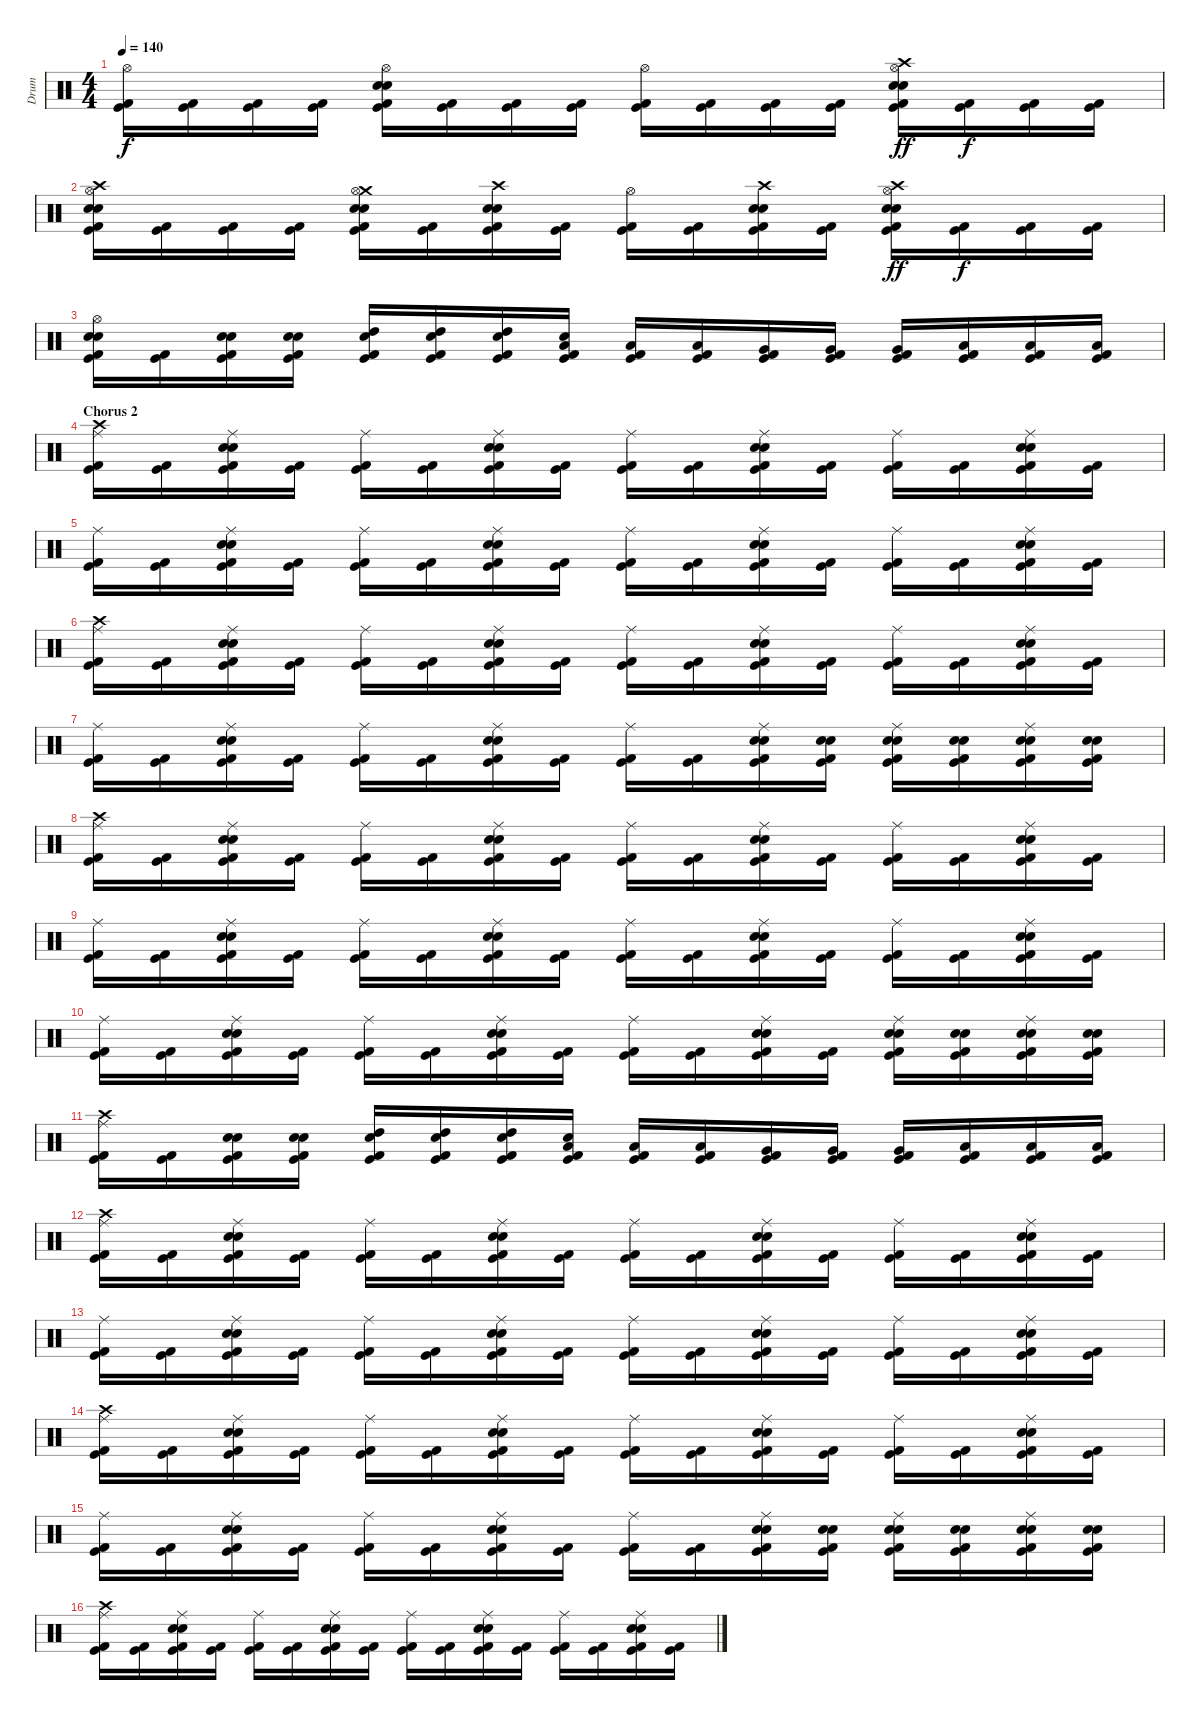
\track ("Drum" "Drum") {instrument percussion}
\staff {score}
\articulation defaults
\ts (4 4)
\tempo 140
\clef neutral
\ks c
("Hi-Hat (open)" "Kick (hit)" "Kick (hit) 2").16{dy f} ("Kick (hit)" "Kick (hit) 2").16 ("Kick (hit)" "Kick (hit) 2").16 ("Kick (hit)" "Kick (hit) 2").16 ("Hi-Hat (open)" "Snare (hit) 2" "Electric Snare (hit)" "Kick (hit)" "Kick (hit) 2").16 ("Kick (hit)" "Kick (hit) 2").16 ("Kick (hit)" "Kick (hit) 2").16 ("Kick (hit)" "Kick (hit) 2").16 ("Hi-Hat (open)" "Kick (hit)" "Kick (hit) 2").16 ("Kick (hit)" "Kick (hit) 2").16 ("Kick (hit)" "Kick (hit) 2").16 ("Kick (hit)" "Kick (hit) 2").16 ("Crash high (hit)" "Hi-Hat (open)" "Snare (hit) 2" "Electric Snare (hit)" "Kick (hit)" "Kick (hit) 2").16{dy ff} ("Kick (hit)" "Kick (hit) 2").16{dy f} ("Kick (hit)" "Kick (hit) 2").16 ("Kick (hit)" "Kick (hit) 2").16 |
("Crash high (hit)" "Hi-Hat (open)" "Snare (hit) 2" "Electric Snare (hit)" "Kick (hit)" "Kick (hit) 2").16 ("Kick (hit)" "Kick (hit) 2").16 ("Kick (hit)" "Kick (hit) 2").16 ("Kick (hit)" "Kick (hit) 2").16 ("Crash medium (hit)" "Hi-Hat (open)" "Snare (hit) 2" "Electric Snare (hit)" "Kick (hit)" "Kick (hit) 2").16 ("Kick (hit)" "Kick (hit) 2").16 ("Crash high (hit)" "Snare (hit) 2" "Electric Snare (hit)" "Kick (hit)" "Kick (hit) 2").16 ("Kick (hit)" "Kick (hit) 2").16 ("Hi-Hat (open)" "Kick (hit)" "Kick (hit) 2").16 ("Kick (hit)" "Kick (hit) 2").16 ("Crash high (hit)" "Snare (hit) 2" "Electric Snare (hit)" "Kick (hit)" "Kick (hit) 2").16 ("Kick (hit)" "Kick (hit) 2").16 ("Crash high (hit)" "Hi-Hat (open)" "Snare (hit) 2" "Electric Snare (hit)" "Kick (hit)" "Kick (hit) 2").16{dy ff} ("Kick (hit)" "Kick (hit) 2").16{dy f} ("Kick (hit)" "Kick (hit) 2").16 ("Kick (hit)" "Kick (hit) 2").16 |
("Hi-Hat (open)" "Snare (hit) 2" "Electric Snare (hit)" "Kick (hit)" "Kick (hit) 2").16 ("Kick (hit)" "Kick (hit) 2").16 ("Snare (hit) 2" "Electric Snare (hit)" "Kick (hit)" "Kick (hit) 2").16 ("Snare (hit) 2" "Electric Snare (hit)" "Kick (hit)" "Kick (hit) 2").16 ("High Tom (hit)" "Electric Snare (hit)" "Kick (hit)" "Kick (hit) 2").16 ("High Tom (hit)" "Electric Snare (hit)" "Kick (hit)" "Kick (hit) 2").16 ("High Tom (hit)" "Electric Snare (hit)" "Kick (hit)" "Kick (hit) 2").16 ("Low Tom (hit)" "Electric Snare (hit)" "Kick (hit)" "Kick (hit) 2").16 ("Low Tom (hit)" "Kick (hit)" "Kick (hit) 2").16 ("Low Tom (hit)" "Kick (hit)" "Kick (hit) 2").16 ("Very Low Tom (hit)" "Kick (hit)" "Kick (hit) 2").16 ("Very Low Tom (hit)" "Kick (hit)" "Kick (hit) 2").16 ("Very Low Tom (hit)" "Kick (hit)" "Kick (hit) 2").16 ("Low Floor Tom (hit)" "Kick (hit)" "Kick (hit) 2").16 ("Low Floor Tom (hit)" "Kick (hit)" "Kick (hit) 2").16 ("Low Floor Tom (hit)" "Kick (hit)" "Kick (hit) 2").16 |
\section ("" "Chorus 2")
("Crash high (hit)" "Ride (middle)" "Kick (hit)" "Kick (hit) 2").16 ("Kick (hit)" "Kick (hit) 2").16 ("Ride (middle)" "Snare (hit) 2" "Electric Snare (hit)" "Kick (hit)" "Kick (hit) 2").16 ("Kick (hit)" "Kick (hit) 2").16 ("Ride (middle)" "Kick (hit)" "Kick (hit) 2").16 ("Kick (hit)" "Kick (hit) 2").16 ("Ride (middle)" "Snare (hit) 2" "Electric Snare (hit)" "Kick (hit)" "Kick (hit) 2").16 ("Kick (hit)" "Kick (hit) 2").16 ("Ride (middle)" "Kick (hit)" "Kick (hit) 2").16 ("Kick (hit)" "Kick (hit) 2").16 ("Ride (middle)" "Snare (hit) 2" "Electric Snare (hit)" "Kick (hit)" "Kick (hit) 2").16 ("Kick (hit)" "Kick (hit) 2").16 ("Ride (middle)" "Kick (hit)" "Kick (hit) 2").16 ("Kick (hit)" "Kick (hit) 2").16 ("Ride (middle)" "Snare (hit) 2" "Electric Snare (hit)" "Kick (hit)" "Kick (hit) 2").16 ("Kick (hit)" "Kick (hit) 2").16 |
("Ride (middle)" "Kick (hit)" "Kick (hit) 2").16 ("Kick (hit)" "Kick (hit) 2").16 ("Ride (middle)" "Snare (hit) 2" "Electric Snare (hit)" "Kick (hit)" "Kick (hit) 2").16 ("Kick (hit)" "Kick (hit) 2").16 ("Ride (middle)" "Kick (hit)" "Kick (hit) 2").16 ("Kick (hit)" "Kick (hit) 2").16 ("Ride (middle)" "Snare (hit) 2" "Electric Snare (hit)" "Kick (hit)" "Kick (hit) 2").16 ("Kick (hit)" "Kick (hit) 2").16 ("Ride (middle)" "Kick (hit)" "Kick (hit) 2").16 ("Kick (hit)" "Kick (hit) 2").16 ("Ride (middle)" "Snare (hit) 2" "Electric Snare (hit)" "Kick (hit)" "Kick (hit) 2").16 ("Kick (hit)" "Kick (hit) 2").16 ("Ride (middle)" "Kick (hit)" "Kick (hit) 2").16 ("Kick (hit)" "Kick (hit) 2").16 ("Ride (middle)" "Snare (hit) 2" "Electric Snare (hit)" "Kick (hit)" "Kick (hit) 2").16 ("Kick (hit)" "Kick (hit) 2").16 |
("Crash high (hit)" "Ride (middle)" "Kick (hit)" "Kick (hit) 2").16 ("Kick (hit)" "Kick (hit) 2").16 ("Ride (middle)" "Snare (hit) 2" "Electric Snare (hit)" "Kick (hit)" "Kick (hit) 2").16 ("Kick (hit)" "Kick (hit) 2").16 ("Ride (middle)" "Kick (hit)" "Kick (hit) 2").16 ("Kick (hit)" "Kick (hit) 2").16 ("Ride (middle)" "Snare (hit) 2" "Electric Snare (hit)" "Kick (hit)" "Kick (hit) 2").16 ("Kick (hit)" "Kick (hit) 2").16 ("Ride (middle)" "Kick (hit)" "Kick (hit) 2").16 ("Kick (hit)" "Kick (hit) 2").16 ("Ride (middle)" "Snare (hit) 2" "Electric Snare (hit)" "Kick (hit)" "Kick (hit) 2").16 ("Kick (hit)" "Kick (hit) 2").16 ("Ride (middle)" "Kick (hit)" "Kick (hit) 2").16 ("Kick (hit)" "Kick (hit) 2").16 ("Ride (middle)" "Snare (hit) 2" "Electric Snare (hit)" "Kick (hit)" "Kick (hit) 2").16 ("Kick (hit)" "Kick (hit) 2").16 |
("Ride (middle)" "Kick (hit)" "Kick (hit) 2").16 ("Kick (hit)" "Kick (hit) 2").16 ("Ride (middle)" "Snare (hit) 2" "Electric Snare (hit)" "Kick (hit)" "Kick (hit) 2").16 ("Kick (hit)" "Kick (hit) 2").16 ("Ride (middle)" "Kick (hit)" "Kick (hit) 2").16 ("Kick (hit)" "Kick (hit) 2").16 ("Ride (middle)" "Snare (hit) 2" "Electric Snare (hit)" "Kick (hit)" "Kick (hit) 2").16 ("Kick (hit)" "Kick (hit) 2").16 ("Ride (middle)" "Kick (hit)" "Kick (hit) 2").16 ("Kick (hit)" "Kick (hit) 2").16 ("Ride (middle)" "Snare (hit) 2" "Electric Snare (hit)" "Kick (hit)" "Kick (hit) 2").16 ("Snare (hit) 2" "Electric Snare (hit)" "Kick (hit)" "Kick (hit) 2").16 ("Ride (middle)" "Snare (hit) 2" "Electric Snare (hit)" "Kick (hit)" "Kick (hit) 2").16 ("Snare (hit) 2" "Electric Snare (hit)" "Kick (hit)" "Kick (hit) 2").16 ("Ride (middle)" "Snare (hit) 2" "Electric Snare (hit)" "Kick (hit)" "Kick (hit) 2").16 ("Snare (hit) 2" "Electric Snare (hit)" "Kick (hit)" "Kick (hit) 2").16 |
("Crash high (hit)" "Ride (middle)" "Kick (hit)" "Kick (hit) 2").16 ("Kick (hit)" "Kick (hit) 2").16 ("Ride (middle)" "Snare (hit) 2" "Electric Snare (hit)" "Kick (hit)" "Kick (hit) 2").16 ("Kick (hit)" "Kick (hit) 2").16 ("Ride (middle)" "Kick (hit)" "Kick (hit) 2").16 ("Kick (hit)" "Kick (hit) 2").16 ("Ride (middle)" "Snare (hit) 2" "Electric Snare (hit)" "Kick (hit)" "Kick (hit) 2").16 ("Kick (hit)" "Kick (hit) 2").16 ("Ride (middle)" "Kick (hit)" "Kick (hit) 2").16 ("Kick (hit)" "Kick (hit) 2").16 ("Ride (middle)" "Snare (hit) 2" "Electric Snare (hit)" "Kick (hit)" "Kick (hit) 2").16 ("Kick (hit)" "Kick (hit) 2").16 ("Ride (middle)" "Kick (hit)" "Kick (hit) 2").16 ("Kick (hit)" "Kick (hit) 2").16 ("Ride (middle)" "Snare (hit) 2" "Electric Snare (hit)" "Kick (hit)" "Kick (hit) 2").16 ("Kick (hit)" "Kick (hit) 2").16 |
("Ride (middle)" "Kick (hit)" "Kick (hit) 2").16 ("Kick (hit)" "Kick (hit) 2").16 ("Ride (middle)" "Snare (hit) 2" "Electric Snare (hit)" "Kick (hit)" "Kick (hit) 2").16 ("Kick (hit)" "Kick (hit) 2").16 ("Ride (middle)" "Kick (hit)" "Kick (hit) 2").16 ("Kick (hit)" "Kick (hit) 2").16 ("Ride (middle)" "Snare (hit) 2" "Electric Snare (hit)" "Kick (hit)" "Kick (hit) 2").16 ("Kick (hit)" "Kick (hit) 2").16 ("Ride (middle)" "Kick (hit)" "Kick (hit) 2").16 ("Kick (hit)" "Kick (hit) 2").16 ("Ride (middle)" "Snare (hit) 2" "Electric Snare (hit)" "Kick (hit)" "Kick (hit) 2").16 ("Kick (hit)" "Kick (hit) 2").16 ("Ride (middle)" "Kick (hit)" "Kick (hit) 2").16 ("Kick (hit)" "Kick (hit) 2").16 ("Ride (middle)" "Snare (hit) 2" "Electric Snare (hit)" "Kick (hit)" "Kick (hit) 2").16 ("Kick (hit)" "Kick (hit) 2").16 |
("Ride (middle)" "Kick (hit)" "Kick (hit) 2").16 ("Kick (hit)" "Kick (hit) 2").16 ("Ride (middle)" "Snare (hit) 2" "Electric Snare (hit)" "Kick (hit)" "Kick (hit) 2").16 ("Kick (hit)" "Kick (hit) 2").16 ("Ride (middle)" "Kick (hit)" "Kick (hit) 2").16 ("Kick (hit)" "Kick (hit) 2").16 ("Ride (middle)" "Snare (hit) 2" "Electric Snare (hit)" "Kick (hit)" "Kick (hit) 2").16 ("Kick (hit)" "Kick (hit) 2").16 ("Ride (middle)" "Kick (hit)" "Kick (hit) 2").16 ("Kick (hit)" "Kick (hit) 2").16 ("Ride (middle)" "Snare (hit) 2" "Electric Snare (hit)" "Kick (hit)" "Kick (hit) 2").16 ("Kick (hit)" "Kick (hit) 2").16 ("Ride (middle)" "Snare (hit) 2" "Electric Snare (hit)" "Kick (hit)" "Kick (hit) 2").16 ("Snare (hit) 2" "Electric Snare (hit)" "Kick (hit)" "Kick (hit) 2").16 ("Ride (middle)" "Snare (hit) 2" "Electric Snare (hit)" "Kick (hit)" "Kick (hit) 2").16 ("Snare (hit) 2" "Electric Snare (hit)" "Kick (hit)" "Kick (hit) 2").16 |
("Crash high (hit)" "Ride (middle)" "Kick (hit)" "Kick (hit) 2").16 ("Kick (hit)" "Kick (hit) 2").16 ("Snare (hit) 2" "Electric Snare (hit)" "Kick (hit)" "Kick (hit) 2").16 ("Snare (hit) 2" "Electric Snare (hit)" "Kick (hit)" "Kick (hit) 2").16 ("High Tom (hit)" "Electric Snare (hit)" "Kick (hit)" "Kick (hit) 2").16 ("High Tom (hit)" "Electric Snare (hit)" "Kick (hit)" "Kick (hit) 2").16 ("High Tom (hit)" "Electric Snare (hit)" "Kick (hit)" "Kick (hit) 2").16 ("Low Tom (hit)" "Electric Snare (hit)" "Kick (hit)" "Kick (hit) 2").16 ("Low Tom (hit)" "Kick (hit)" "Kick (hit) 2").16 ("Low Tom (hit)" "Kick (hit)" "Kick (hit) 2").16 ("Very Low Tom (hit)" "Kick (hit)" "Kick (hit) 2").16 ("Very Low Tom (hit)" "Kick (hit)" "Kick (hit) 2").16 ("Very Low Tom (hit)" "Kick (hit)" "Kick (hit) 2").16 ("Low Floor Tom (hit)" "Kick (hit)" "Kick (hit) 2").16 ("Low Floor Tom (hit)" "Kick (hit)" "Kick (hit) 2").16 ("Low Floor Tom (hit)" "Kick (hit)" "Kick (hit) 2").16 |
("Crash high (hit)" "Ride (middle)" "Kick (hit)" "Kick (hit) 2").16 ("Kick (hit)" "Kick (hit) 2").16 ("Ride (middle)" "Snare (hit) 2" "Electric Snare (hit)" "Kick (hit)" "Kick (hit) 2").16 ("Kick (hit)" "Kick (hit) 2").16 ("Ride (middle)" "Kick (hit)" "Kick (hit) 2").16 ("Kick (hit)" "Kick (hit) 2").16 ("Ride (middle)" "Snare (hit) 2" "Electric Snare (hit)" "Kick (hit)" "Kick (hit) 2").16 ("Kick (hit)" "Kick (hit) 2").16 ("Ride (middle)" "Kick (hit)" "Kick (hit) 2").16 ("Kick (hit)" "Kick (hit) 2").16 ("Ride (middle)" "Snare (hit) 2" "Electric Snare (hit)" "Kick (hit)" "Kick (hit) 2").16 ("Kick (hit)" "Kick (hit) 2").16 ("Ride (middle)" "Kick (hit)" "Kick (hit) 2").16 ("Kick (hit)" "Kick (hit) 2").16 ("Ride (middle)" "Snare (hit) 2" "Electric Snare (hit)" "Kick (hit)" "Kick (hit) 2").16 ("Kick (hit)" "Kick (hit) 2").16 |
("Ride (middle)" "Kick (hit)" "Kick (hit) 2").16 ("Kick (hit)" "Kick (hit) 2").16 ("Ride (middle)" "Snare (hit) 2" "Electric Snare (hit)" "Kick (hit)" "Kick (hit) 2").16 ("Kick (hit)" "Kick (hit) 2").16 ("Ride (middle)" "Kick (hit)" "Kick (hit) 2").16 ("Kick (hit)" "Kick (hit) 2").16 ("Ride (middle)" "Snare (hit) 2" "Electric Snare (hit)" "Kick (hit)" "Kick (hit) 2").16 ("Kick (hit)" "Kick (hit) 2").16 ("Ride (middle)" "Kick (hit)" "Kick (hit) 2").16 ("Kick (hit)" "Kick (hit) 2").16 ("Ride (middle)" "Snare (hit) 2" "Electric Snare (hit)" "Kick (hit)" "Kick (hit) 2").16 ("Kick (hit)" "Kick (hit) 2").16 ("Ride (middle)" "Kick (hit)" "Kick (hit) 2").16 ("Kick (hit)" "Kick (hit) 2").16 ("Ride (middle)" "Snare (hit) 2" "Electric Snare (hit)" "Kick (hit)" "Kick (hit) 2").16 ("Kick (hit)" "Kick (hit) 2").16 |
("Crash high (hit)" "Ride (middle)" "Kick (hit)" "Kick (hit) 2").16 ("Kick (hit)" "Kick (hit) 2").16 ("Ride (middle)" "Snare (hit) 2" "Electric Snare (hit)" "Kick (hit)" "Kick (hit) 2").16 ("Kick (hit)" "Kick (hit) 2").16 ("Ride (middle)" "Kick (hit)" "Kick (hit) 2").16 ("Kick (hit)" "Kick (hit) 2").16 ("Ride (middle)" "Snare (hit) 2" "Electric Snare (hit)" "Kick (hit)" "Kick (hit) 2").16 ("Kick (hit)" "Kick (hit) 2").16 ("Ride (middle)" "Kick (hit)" "Kick (hit) 2").16 ("Kick (hit)" "Kick (hit) 2").16 ("Ride (middle)" "Snare (hit) 2" "Electric Snare (hit)" "Kick (hit)" "Kick (hit) 2").16 ("Kick (hit)" "Kick (hit) 2").16 ("Ride (middle)" "Kick (hit)" "Kick (hit) 2").16 ("Kick (hit)" "Kick (hit) 2").16 ("Ride (middle)" "Snare (hit) 2" "Electric Snare (hit)" "Kick (hit)" "Kick (hit) 2").16 ("Kick (hit)" "Kick (hit) 2").16 |
("Ride (middle)" "Kick (hit)" "Kick (hit) 2").16 ("Kick (hit)" "Kick (hit) 2").16 ("Ride (middle)" "Snare (hit) 2" "Electric Snare (hit)" "Kick (hit)" "Kick (hit) 2").16 ("Kick (hit)" "Kick (hit) 2").16 ("Ride (middle)" "Kick (hit)" "Kick (hit) 2").16 ("Kick (hit)" "Kick (hit) 2").16 ("Ride (middle)" "Snare (hit) 2" "Electric Snare (hit)" "Kick (hit)" "Kick (hit) 2").16 ("Kick (hit)" "Kick (hit) 2").16 ("Ride (middle)" "Kick (hit)" "Kick (hit) 2").16 ("Kick (hit)" "Kick (hit) 2").16 ("Ride (middle)" "Snare (hit) 2" "Electric Snare (hit)" "Kick (hit)" "Kick (hit) 2").16 ("Snare (hit) 2" "Electric Snare (hit)" "Kick (hit)" "Kick (hit) 2").16 ("Ride (middle)" "Snare (hit) 2" "Electric Snare (hit)" "Kick (hit)" "Kick (hit) 2").16 ("Snare (hit) 2" "Electric Snare (hit)" "Kick (hit)" "Kick (hit) 2").16 ("Ride (middle)" "Snare (hit) 2" "Electric Snare (hit)" "Kick (hit)" "Kick (hit) 2").16 ("Snare (hit) 2" "Electric Snare (hit)" "Kick (hit)" "Kick (hit) 2").16 |
("Crash high (hit)" "Ride (middle)" "Kick (hit)" "Kick (hit) 2").16 ("Kick (hit)" "Kick (hit) 2").16 ("Ride (middle)" "Snare (hit) 2" "Electric Snare (hit)" "Kick (hit)" "Kick (hit) 2").16 ("Kick (hit)" "Kick (hit) 2").16 ("Ride (middle)" "Kick (hit)" "Kick (hit) 2").16 ("Kick (hit)" "Kick (hit) 2").16 ("Ride (middle)" "Snare (hit) 2" "Electric Snare (hit)" "Kick (hit)" "Kick (hit) 2").16 ("Kick (hit)" "Kick (hit) 2").16 ("Ride (middle)" "Kick (hit)" "Kick (hit) 2").16 ("Kick (hit)" "Kick (hit) 2").16 ("Ride (middle)" "Snare (hit) 2" "Electric Snare (hit)" "Kick (hit)" "Kick (hit) 2").16 ("Kick (hit)" "Kick (hit) 2").16 ("Ride (middle)" "Kick (hit)" "Kick (hit) 2").16 ("Kick (hit)" "Kick (hit) 2").16 ("Ride (middle)" "Snare (hit) 2" "Electric Snare (hit)" "Kick (hit)" "Kick (hit) 2").16 ("Kick (hit)" "Kick (hit) 2").16
